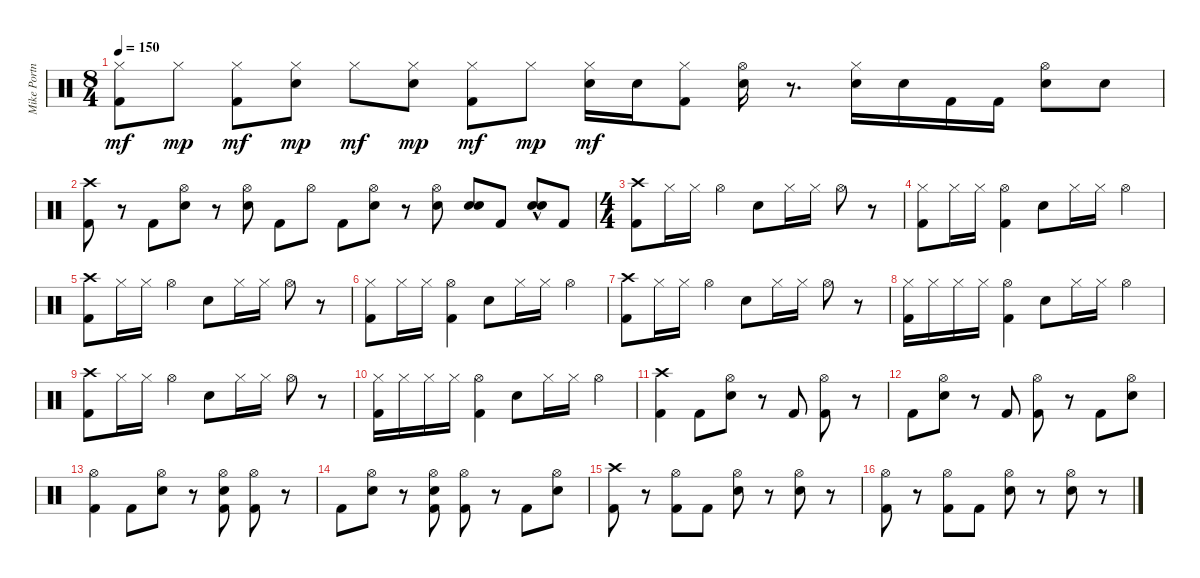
\track ("Mike Portnoy: Drums" "Mike Portn") {instrument percussion}
\staff {score}
\articulation defaults
\ts (8 4)
\tempo 150
\clef neutral
\ks c
("Kick (hit) 2" "Hi-Hat (closed)").8{dy mf} "Hi-Hat (closed)".8{dy mp} ("Kick (hit) 2" "Hi-Hat (closed)").8{dy mf} ("Electric Snare (hit)" "Hi-Hat (closed)").8{dy mp} "Hi-Hat (closed)".8{dy mf} ("Electric Snare (hit)" "Hi-Hat (closed)").8{dy mp} ("Kick (hit) 2" "Hi-Hat (closed)").8{dy mf} "Hi-Hat (closed)".8{dy mp} ("Electric Snare (hit)" "Hi-Hat (closed)").16{dy mf} "Electric Snare (hit)".16 ("Kick (hit) 2" "Hi-Hat (closed)").8 ("Electric Snare (hit)" "Hi-Hat (open)").16 r.8{d} ("Electric Snare (hit)" "Hi-Hat (closed)").16 "Electric Snare (hit)".16 "Kick (hit) 2".16 "Kick (hit) 2".16 ("Electric Snare (hit)" "Hi-Hat (open)").8 "Electric Snare (hit)".8 |
("Kick (hit) 2" "Crash high (hit)").8 r.8 "Kick (hit) 2".8 ("Electric Snare (hit)" "Hi-Hat (open)").8 r.8 ("Electric Snare (hit)" "Hi-Hat (open)").8 "Kick (hit) 2".8 "Hi-Hat (open)".8 "Kick (hit) 2".8 ("Electric Snare (hit)" "Hi-Hat (open)").8 r.8 ("Electric Snare (hit)" "Hi-Hat (open)").8 ("Electric Snare (hit)" "Electric Snare (hit)").8 "Kick (hit) 2".8 ("Electric Snare (hit)" "Electric Snare (hit)"{hac}).8 "Kick (hit) 2".8 |
\ts (4 4)
("Kick (hit) 2" "Crash high (hit)").8 "Hi-Hat (closed)".16 "Hi-Hat (closed)".16 "Hi-Hat (open)".4 "Electric Snare (hit)".8 "Hi-Hat (closed)".16 "Hi-Hat (closed)".16 "Hi-Hat (open)".8 r.8 |
("Kick (hit) 2" "Hi-Hat (closed)").8 "Hi-Hat (closed)".16 "Hi-Hat (closed)".16 ("Kick (hit) 2" "Hi-Hat (open)").4 "Electric Snare (hit)".8 "Hi-Hat (closed)".16 "Hi-Hat (closed)".16 "Hi-Hat (open)".4 |
("Kick (hit) 2" "Crash high (hit)").8 "Hi-Hat (closed)".16 "Hi-Hat (closed)".16 "Hi-Hat (open)".4 "Electric Snare (hit)".8 "Hi-Hat (closed)".16 "Hi-Hat (closed)".16 "Hi-Hat (open)".8 r.8 |
("Kick (hit) 2" "Hi-Hat (closed)").8 "Hi-Hat (closed)".16 "Hi-Hat (closed)".16 ("Kick (hit) 2" "Hi-Hat (open)").4 "Electric Snare (hit)".8 "Hi-Hat (closed)".16 "Hi-Hat (closed)".16 "Hi-Hat (open)".4 |
("Kick (hit) 2" "Crash high (hit)").8 "Hi-Hat (closed)".16 "Hi-Hat (closed)".16 "Hi-Hat (open)".4 "Electric Snare (hit)".8 "Hi-Hat (closed)".16 "Hi-Hat (closed)".16 "Hi-Hat (open)".8 r.8 |
("Kick (hit) 2" "Hi-Hat (closed)").16 "Hi-Hat (closed)".16 "Hi-Hat (closed)".16 "Hi-Hat (closed)".16 ("Kick (hit) 2" "Hi-Hat (open)").4 "Electric Snare (hit)".8 "Hi-Hat (closed)".16 "Hi-Hat (closed)".16 "Hi-Hat (open)".4 |
("Kick (hit) 2" "Crash high (hit)").8 "Hi-Hat (closed)".16 "Hi-Hat (closed)".16 "Hi-Hat (open)".4 "Electric Snare (hit)".8 "Hi-Hat (closed)".16 "Hi-Hat (closed)".16 "Hi-Hat (open)".8 r.8 |
("Kick (hit) 2" "Hi-Hat (closed)").16 "Hi-Hat (closed)".16 "Hi-Hat (closed)".16 "Hi-Hat (closed)".16 ("Kick (hit) 2" "Hi-Hat (open)").4 "Electric Snare (hit)".8 "Hi-Hat (closed)".16 "Hi-Hat (closed)".16 "Hi-Hat (open)".4 |
("Kick (hit) 2" "Crash high (hit)").4 "Kick (hit) 2".8 ("Electric Snare (hit)" "Hi-Hat (open)").8 r.8 "Kick (hit) 2".8 ("Kick (hit) 2" "Hi-Hat (open)").8 r.8 |
"Kick (hit) 2".8 ("Electric Snare (hit)" "Hi-Hat (open)").8 r.8 "Kick (hit) 2".8 ("Kick (hit) 2" "Hi-Hat (open)").8 r.8 "Kick (hit) 2".8 ("Electric Snare (hit)" "Hi-Hat (open)").8 |
("Kick (hit) 2" "Hi-Hat (open)").4 "Kick (hit) 2".8 ("Electric Snare (hit)" "Hi-Hat (open)").8 r.8 ("Kick (hit) 2" "Electric Snare (hit)" "Hi-Hat (open)").8 ("Kick (hit) 2" "Hi-Hat (open)").8 r.8 |
"Kick (hit) 2".8 ("Electric Snare (hit)" "Hi-Hat (open)").8 r.8 ("Kick (hit) 2" "Electric Snare (hit)" "Hi-Hat (open)").8 ("Kick (hit) 2" "Hi-Hat (open)").8 r.8 "Kick (hit) 2".8 ("Electric Snare (hit)" "Hi-Hat (open)").8 |
("Kick (hit) 2" "Crash high (hit)").8 r.8 ("Kick (hit) 2" "Hi-Hat (open)").8 "Kick (hit) 2".8 ("Electric Snare (hit)" "Hi-Hat (open)").8 r.8 ("Electric Snare (hit)" "Hi-Hat (open)").8 r.8 |
("Kick (hit) 2" "Hi-Hat (open)").8 r.8 ("Kick (hit) 2" "Hi-Hat (open)").8 "Kick (hit) 2".8 ("Electric Snare (hit)" "Hi-Hat (open)").8 r.8 ("Electric Snare (hit)" "Hi-Hat (open)").8 r.8
